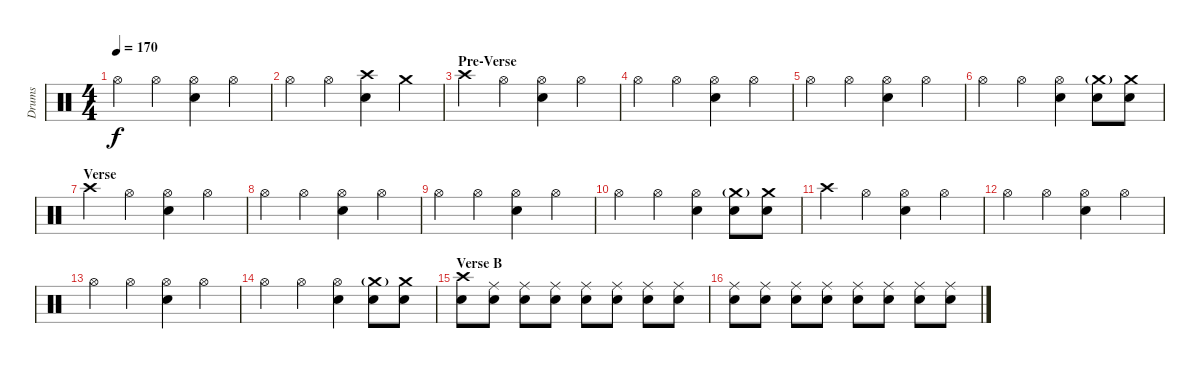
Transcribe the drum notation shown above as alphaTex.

\track ("Drums" "Drums") {instrument percussion}
\staff {score}
\articulation defaults
\ts (4 4)
\tempo 170
\clef neutral
\ks c "Hi-Hat (open)".4{dy f} "Hi-Hat (open)".4
("Hi-Hat (open)" "Electric Snare (hit)").4 "Hi-Hat (open)".4 |
"Hi-Hat (open)".4 "Hi-Hat (open)".4 ("Crash high (hit)" "Electric Snare (hit)").4 "Crash medium (hit)".4 |
\section ("" "Pre-Verse")
"Crash high (hit)".4 "Hi-Hat (open)".4 ("Hi-Hat (open)" "Electric Snare (hit)").4 "Hi-Hat (open)".4 |
"Hi-Hat (open)".4 "Hi-Hat (open)".4 ("Hi-Hat (open)" "Electric Snare (hit)").4 "Hi-Hat (open)".4 |
"Hi-Hat (open)".4 "Hi-Hat (open)".4 ("Hi-Hat (open)" "Electric Snare (hit)").4 "Hi-Hat (open)".4 |
"Hi-Hat (open)".4 "Hi-Hat (open)".4 ("Hi-Hat (open)" "Electric Snare (hit)").4 ("Crash medium (hit)"{g} "Electric Snare (hit)").8 ("Crash medium (hit)" "Electric Snare (hit)").8 |
\section ("" "Verse")
"Crash high (hit)".4 "Hi-Hat (open)".4 ("Hi-Hat (open)" "Electric Snare (hit)").4 "Hi-Hat (open)".4 |
"Hi-Hat (open)".4 "Hi-Hat (open)".4 ("Hi-Hat (open)" "Electric Snare (hit)").4 "Hi-Hat (open)".4 |
"Hi-Hat (open)".4 "Hi-Hat (open)".4 ("Hi-Hat (open)" "Electric Snare (hit)").4 "Hi-Hat (open)".4 |
"Hi-Hat (open)".4 "Hi-Hat (open)".4 ("Hi-Hat (open)" "Electric Snare (hit)").4 ("Crash medium (hit)"{g} "Electric Snare (hit)").8 ("Crash medium (hit)" "Electric Snare (hit)").8 |
"Crash high (hit)".4 "Hi-Hat (open)".4 ("Hi-Hat (open)" "Electric Snare (hit)").4 "Hi-Hat (open)".4 |
"Hi-Hat (open)".4 "Hi-Hat (open)".4 ("Hi-Hat (open)" "Electric Snare (hit)").4 "Hi-Hat (open)".4 |
"Hi-Hat (open)".4 "Hi-Hat (open)".4 ("Hi-Hat (open)" "Electric Snare (hit)").4 "Hi-Hat (open)".4 |
"Hi-Hat (open)".4 "Hi-Hat (open)".4 ("Hi-Hat (open)" "Electric Snare (hit)").4 ("Crash medium (hit)"{g} "Electric Snare (hit)").8 ("Crash medium (hit)" "Electric Snare (hit)").8 |
\section ("" "Verse B")
("Crash high (hit)" "Electric Snare (hit)").8 ("Ride (middle)" "Electric Snare (hit)").8 ("Ride (middle)" "Electric Snare (hit)").8 ("Ride (middle)" "Electric Snare (hit)").8 ("Ride (middle)" "Electric Snare (hit)").8 ("Ride (middle)" "Electric Snare (hit)").8 ("Ride (middle)" "Electric Snare (hit)").8 ("Ride (middle)" "Electric Snare (hit)").8 |
("Ride (middle)" "Electric Snare (hit)").8 ("Ride (middle)" "Electric Snare (hit)").8 ("Ride (middle)" "Electric Snare (hit)").8 ("Ride (middle)" "Electric Snare (hit)").8 ("Ride (middle)" "Electric Snare (hit)").8 ("Ride (middle)" "Electric Snare (hit)").8 ("Ride (middle)" "Electric Snare (hit)").8 ("Ride (middle)" "Electric Snare (hit)").8
